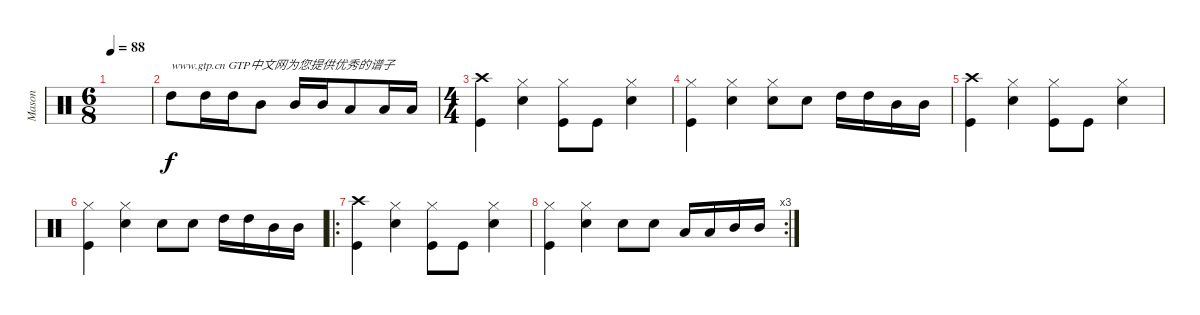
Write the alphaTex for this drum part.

\track ("Mason" "Mason") {instrument percussion}
\staff {score}
\articulation defaults
\ts (6 8)
\tempo 88
\clef neutral
\ks c
|
"High Tom (hit)".8{txt "www.gtp.cn GTP中文网为您提供优秀的谱子"} "High Tom (hit)".16 "High Tom (hit)".16 "Mid Tom (hit)".8 "Mid Tom (hit)".16 "Mid Tom (hit)".16 "Low Tom (hit)".8 "Low Tom (hit)".16 "Low Tom (hit)".16 |
\ts (4 4)
("Kick (hit)" "Crash high (hit)").4 ("Snare (hit) 2" "Hi-Hat (closed)").4 ("Kick (hit)" "Hi-Hat (closed)").8 "Kick (hit)".8 ("Snare (hit) 2" "Hi-Hat (closed)").4 |
("Kick (hit)" "Hi-Hat (closed)").4 ("Snare (hit) 2" "Hi-Hat (closed)").4 ("Snare (hit) 2" "Hi-Hat (closed)").8 "Snare (hit) 2".8 "High Tom (hit)".16 "High Tom (hit)".16 "Mid Tom (hit)".16 "Mid Tom (hit)".16 |
("Kick (hit)" "Crash high (hit)").4 ("Snare (hit) 2" "Hi-Hat (closed)").4 ("Kick (hit)" "Hi-Hat (closed)").8 "Kick (hit)".8 ("Snare (hit) 2" "Hi-Hat (closed)").4 |
("Kick (hit)" "Hi-Hat (closed)").4 ("Snare (hit) 2" "Hi-Hat (closed)").4 "Snare (hit) 2".8 "Snare (hit) 2".8 "High Tom (hit)".16 "High Tom (hit)".16 "Mid Tom (hit)".16 "Mid Tom (hit)".16 |
\ro
("Kick (hit)" "Crash high (hit)").4 ("Snare (hit) 2" "Hi-Hat (closed)").4 ("Kick (hit)" "Hi-Hat (closed)").8 "Kick (hit)".8 ("Snare (hit) 2" "Hi-Hat (closed)").4 |
\rc 3
("Kick (hit)" "Hi-Hat (closed)").4 ("Snare (hit) 2" "Hi-Hat (closed)").4 "Snare (hit) 2".8 "Snare (hit) 2".8 "Low Tom (hit)".16 "Low Tom (hit)".16 "Mid Tom (hit)".16 "Mid Tom (hit)".16
